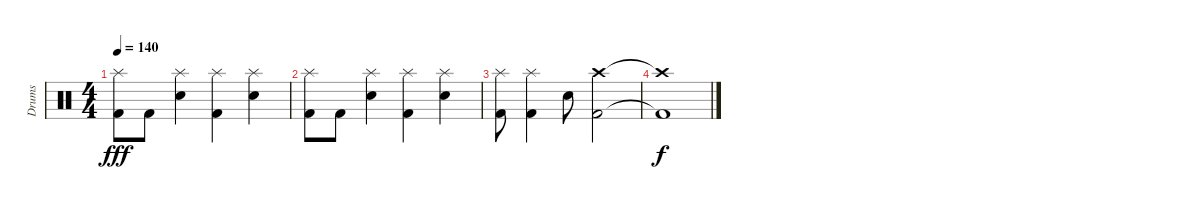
\track ("Drums" "Drums") {instrument percussion}
\staff {score}
\articulation defaults
\ts (4 4)
\tempo 140
\clef neutral
\ks c
("Splash (hit)" "Kick (hit) 2").8{dy fff} "Kick (hit) 2".8 ("Splash (hit)" "Snare (hit) 2").4 ("Splash (hit)" "Kick (hit) 2").4 ("Splash (hit)" "Snare (hit) 2").4 |
("Splash (hit)" "Kick (hit) 2").8 "Kick (hit) 2".8 ("Splash (hit)" "Snare (hit) 2").4 ("Splash (hit)" "Kick (hit) 2").4 ("Splash (hit)" "Snare (hit) 2").4 |
("Splash (hit)" "Kick (hit) 2").8 ("Splash (hit)" "Kick (hit) 2").4 "Snare (hit) 2".8 ("Crash high (hit)" "Kick (hit) 2").2 |
("Crash high (hit)"{t} "Kick (hit) 2"{t}).1{dy f}
